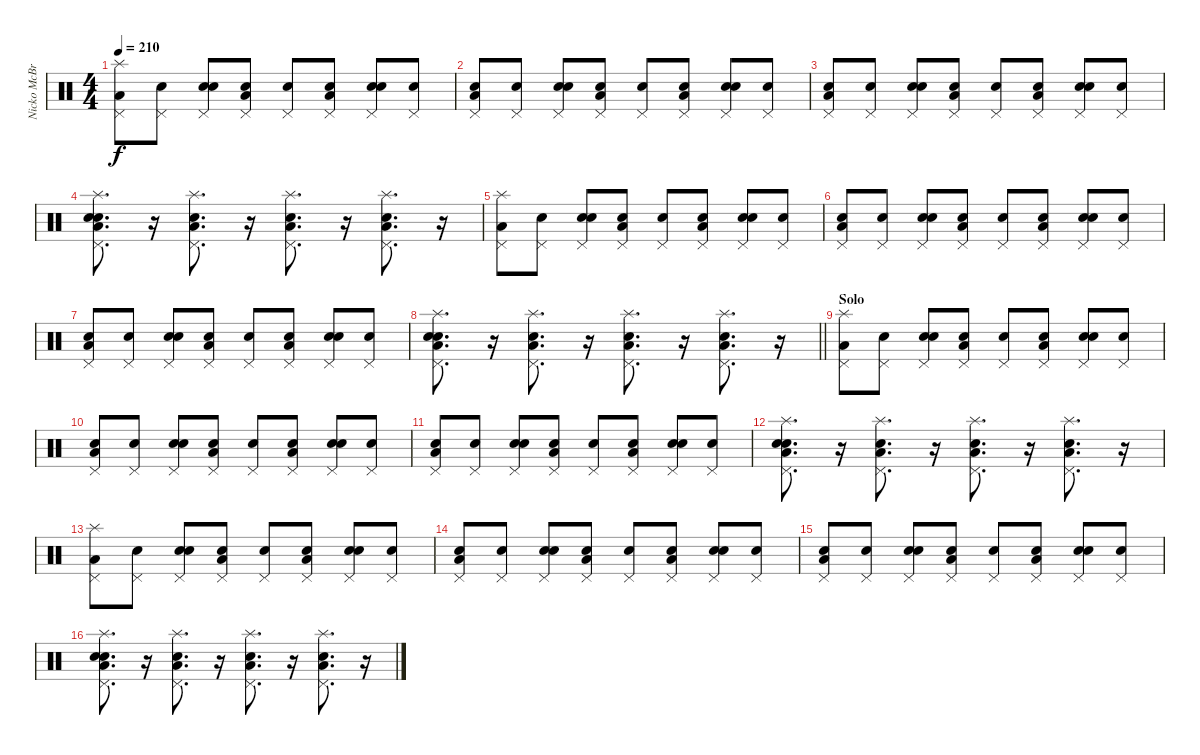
\track ("Nicko McBrain" "Nicko McBr") {instrument percussion}
\staff {score}
\articulation defaults
\ts (4 4)
\tempo 210
\clef neutral
\ks c
("Low Floor Tom (hit)" "Pedal Hi-Hat (hit)" "Splash (hit)").8{dy f} ("Snare (hit)" "Pedal Hi-Hat (hit)").8 ("Snare (hit)" "Electric Snare (hit)" "Pedal Hi-Hat (hit)").8 ("Snare (hit)" "Low Floor Tom (hit)" "Pedal Hi-Hat (hit)").8 ("Snare (hit)" "Pedal Hi-Hat (hit)").8 ("Snare (hit)" "Low Floor Tom (hit)" "Pedal Hi-Hat (hit)").8 ("Snare (hit)" "Electric Snare (hit)" "Pedal Hi-Hat (hit)").8 ("Snare (hit)" "Pedal Hi-Hat (hit)").8 |
("Snare (hit)" "Low Floor Tom (hit)" "Pedal Hi-Hat (hit)").8 ("Snare (hit)" "Pedal Hi-Hat (hit)").8 ("Snare (hit)" "Electric Snare (hit)" "Pedal Hi-Hat (hit)").8 ("Snare (hit)" "Low Floor Tom (hit)" "Pedal Hi-Hat (hit)").8 ("Snare (hit)" "Pedal Hi-Hat (hit)").8 ("Snare (hit)" "Low Floor Tom (hit)" "Pedal Hi-Hat (hit)").8 ("Snare (hit)" "Electric Snare (hit)" "Pedal Hi-Hat (hit)").8 ("Snare (hit)" "Pedal Hi-Hat (hit)").8 |
("Snare (hit)" "Low Floor Tom (hit)" "Pedal Hi-Hat (hit)").8 ("Snare (hit)" "Pedal Hi-Hat (hit)").8 ("Snare (hit)" "Electric Snare (hit)" "Pedal Hi-Hat (hit)").8 ("Snare (hit)" "Low Floor Tom (hit)" "Pedal Hi-Hat (hit)").8 ("Snare (hit)" "Pedal Hi-Hat (hit)").8 ("Snare (hit)" "Low Floor Tom (hit)" "Pedal Hi-Hat (hit)").8 ("Snare (hit)" "Electric Snare (hit)" "Pedal Hi-Hat (hit)").8 ("Snare (hit)" "Pedal Hi-Hat (hit)").8 |
("Snare (hit)" "Electric Snare (hit)" "Low Floor Tom (hit)" "Pedal Hi-Hat (hit)" "Splash (hit)").8{d} r.16 ("Electric Snare (hit)" "Low Floor Tom (hit)" "Pedal Hi-Hat (hit)" "Splash (hit)").8{d} r.16 ("Electric Snare (hit)" "Low Floor Tom (hit)" "Pedal Hi-Hat (hit)" "Splash (hit)").8{d} r.16 ("Electric Snare (hit)" "Low Floor Tom (hit)" "Pedal Hi-Hat (hit)" "Splash (hit)").8{d} r.16 |
("Low Floor Tom (hit)" "Pedal Hi-Hat (hit)" "Splash (hit)").8 ("Snare (hit)" "Pedal Hi-Hat (hit)").8 ("Snare (hit)" "Electric Snare (hit)" "Pedal Hi-Hat (hit)").8 ("Snare (hit)" "Low Floor Tom (hit)" "Pedal Hi-Hat (hit)").8 ("Snare (hit)" "Pedal Hi-Hat (hit)").8 ("Snare (hit)" "Low Floor Tom (hit)" "Pedal Hi-Hat (hit)").8 ("Snare (hit)" "Electric Snare (hit)" "Pedal Hi-Hat (hit)").8 ("Snare (hit)" "Pedal Hi-Hat (hit)").8 |
("Snare (hit)" "Low Floor Tom (hit)" "Pedal Hi-Hat (hit)").8 ("Snare (hit)" "Pedal Hi-Hat (hit)").8 ("Snare (hit)" "Electric Snare (hit)" "Pedal Hi-Hat (hit)").8 ("Snare (hit)" "Low Floor Tom (hit)" "Pedal Hi-Hat (hit)").8 ("Snare (hit)" "Pedal Hi-Hat (hit)").8 ("Snare (hit)" "Low Floor Tom (hit)" "Pedal Hi-Hat (hit)").8 ("Snare (hit)" "Electric Snare (hit)" "Pedal Hi-Hat (hit)").8 ("Snare (hit)" "Pedal Hi-Hat (hit)").8 |
("Snare (hit)" "Low Floor Tom (hit)" "Pedal Hi-Hat (hit)").8 ("Snare (hit)" "Pedal Hi-Hat (hit)").8 ("Snare (hit)" "Electric Snare (hit)" "Pedal Hi-Hat (hit)").8 ("Snare (hit)" "Low Floor Tom (hit)" "Pedal Hi-Hat (hit)").8 ("Snare (hit)" "Pedal Hi-Hat (hit)").8 ("Snare (hit)" "Low Floor Tom (hit)" "Pedal Hi-Hat (hit)").8 ("Snare (hit)" "Electric Snare (hit)" "Pedal Hi-Hat (hit)").8 ("Snare (hit)" "Pedal Hi-Hat (hit)").8 |
\barLineRight lightlight
("Snare (hit)" "Electric Snare (hit)" "Low Floor Tom (hit)" "Pedal Hi-Hat (hit)" "Splash (hit)").8{d} r.16 ("Electric Snare (hit)" "Low Floor Tom (hit)" "Pedal Hi-Hat (hit)" "Splash (hit)").8{d} r.16 ("Electric Snare (hit)" "Low Floor Tom (hit)" "Pedal Hi-Hat (hit)" "Splash (hit)").8{d} r.16 ("Electric Snare (hit)" "Low Floor Tom (hit)" "Pedal Hi-Hat (hit)" "Splash (hit)").8{d} r.16 |
\section ("" "Solo")
("Low Floor Tom (hit)" "Pedal Hi-Hat (hit)" "Splash (hit)").8 ("Snare (hit)" "Pedal Hi-Hat (hit)").8 ("Snare (hit)" "Electric Snare (hit)" "Pedal Hi-Hat (hit)").8 ("Snare (hit)" "Low Floor Tom (hit)" "Pedal Hi-Hat (hit)").8 ("Snare (hit)" "Pedal Hi-Hat (hit)").8 ("Snare (hit)" "Low Floor Tom (hit)" "Pedal Hi-Hat (hit)").8 ("Snare (hit)" "Electric Snare (hit)" "Pedal Hi-Hat (hit)").8 ("Snare (hit)" "Pedal Hi-Hat (hit)").8 |
("Snare (hit)" "Low Floor Tom (hit)" "Pedal Hi-Hat (hit)").8 ("Snare (hit)" "Pedal Hi-Hat (hit)").8 ("Snare (hit)" "Electric Snare (hit)" "Pedal Hi-Hat (hit)").8 ("Snare (hit)" "Low Floor Tom (hit)" "Pedal Hi-Hat (hit)").8 ("Snare (hit)" "Pedal Hi-Hat (hit)").8 ("Snare (hit)" "Low Floor Tom (hit)" "Pedal Hi-Hat (hit)").8 ("Snare (hit)" "Electric Snare (hit)" "Pedal Hi-Hat (hit)").8 ("Snare (hit)" "Pedal Hi-Hat (hit)").8 |
("Snare (hit)" "Low Floor Tom (hit)" "Pedal Hi-Hat (hit)").8 ("Snare (hit)" "Pedal Hi-Hat (hit)").8 ("Snare (hit)" "Electric Snare (hit)" "Pedal Hi-Hat (hit)").8 ("Snare (hit)" "Low Floor Tom (hit)" "Pedal Hi-Hat (hit)").8 ("Snare (hit)" "Pedal Hi-Hat (hit)").8 ("Snare (hit)" "Low Floor Tom (hit)" "Pedal Hi-Hat (hit)").8 ("Snare (hit)" "Electric Snare (hit)" "Pedal Hi-Hat (hit)").8 ("Snare (hit)" "Pedal Hi-Hat (hit)").8 |
("Snare (hit)" "Electric Snare (hit)" "Low Floor Tom (hit)" "Pedal Hi-Hat (hit)" "Splash (hit)").8{d} r.16 ("Electric Snare (hit)" "Low Floor Tom (hit)" "Pedal Hi-Hat (hit)" "Splash (hit)").8{d} r.16 ("Electric Snare (hit)" "Low Floor Tom (hit)" "Pedal Hi-Hat (hit)" "Splash (hit)").8{d} r.16 ("Electric Snare (hit)" "Low Floor Tom (hit)" "Pedal Hi-Hat (hit)" "Splash (hit)").8{d} r.16 |
("Low Floor Tom (hit)" "Pedal Hi-Hat (hit)" "Splash (hit)").8 ("Snare (hit)" "Pedal Hi-Hat (hit)").8 ("Snare (hit)" "Electric Snare (hit)" "Pedal Hi-Hat (hit)").8 ("Snare (hit)" "Low Floor Tom (hit)" "Pedal Hi-Hat (hit)").8 ("Snare (hit)" "Pedal Hi-Hat (hit)").8 ("Snare (hit)" "Low Floor Tom (hit)" "Pedal Hi-Hat (hit)").8 ("Snare (hit)" "Electric Snare (hit)" "Pedal Hi-Hat (hit)").8 ("Snare (hit)" "Pedal Hi-Hat (hit)").8 |
("Snare (hit)" "Low Floor Tom (hit)" "Pedal Hi-Hat (hit)").8 ("Snare (hit)" "Pedal Hi-Hat (hit)").8 ("Snare (hit)" "Electric Snare (hit)" "Pedal Hi-Hat (hit)").8 ("Snare (hit)" "Low Floor Tom (hit)" "Pedal Hi-Hat (hit)").8 ("Snare (hit)" "Pedal Hi-Hat (hit)").8 ("Snare (hit)" "Low Floor Tom (hit)" "Pedal Hi-Hat (hit)").8 ("Snare (hit)" "Electric Snare (hit)" "Pedal Hi-Hat (hit)").8 ("Snare (hit)" "Pedal Hi-Hat (hit)").8 |
("Snare (hit)" "Low Floor Tom (hit)" "Pedal Hi-Hat (hit)").8 ("Snare (hit)" "Pedal Hi-Hat (hit)").8 ("Snare (hit)" "Electric Snare (hit)" "Pedal Hi-Hat (hit)").8 ("Snare (hit)" "Low Floor Tom (hit)" "Pedal Hi-Hat (hit)").8 ("Snare (hit)" "Pedal Hi-Hat (hit)").8 ("Snare (hit)" "Low Floor Tom (hit)" "Pedal Hi-Hat (hit)").8 ("Snare (hit)" "Electric Snare (hit)" "Pedal Hi-Hat (hit)").8 ("Snare (hit)" "Pedal Hi-Hat (hit)").8 |
("Snare (hit)" "Electric Snare (hit)" "Low Floor Tom (hit)" "Pedal Hi-Hat (hit)" "Splash (hit)").8{d} r.16 ("Electric Snare (hit)" "Low Floor Tom (hit)" "Pedal Hi-Hat (hit)" "Splash (hit)").8{d} r.16 ("Electric Snare (hit)" "Low Floor Tom (hit)" "Pedal Hi-Hat (hit)" "Splash (hit)").8{d} r.16 ("Electric Snare (hit)" "Low Floor Tom (hit)" "Pedal Hi-Hat (hit)" "Splash (hit)").8{d} r.16
